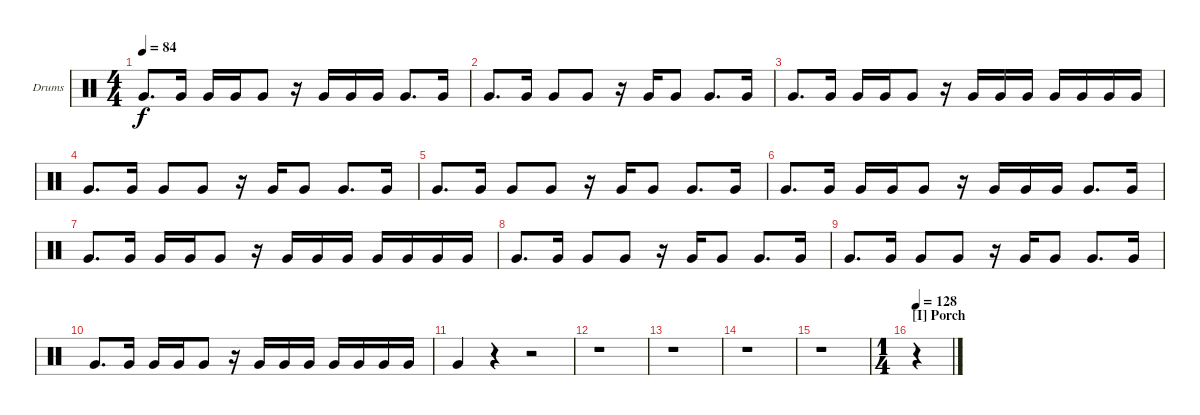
\defaultSystemsLayout 4
\bracketExtendMode nobrackets
\firstSystemTrackNameOrientation horizontal
\otherSystemsTrackNameOrientation horizontal
\track ("Dave Krusen" "Drums") {instrument percussion}
\staff {score}
\articulation defaults
\ts (4 4)
\tempo 84
\clef neutral
\ks c "Very Low Tom (hit)".8{d dy f} "Very Low Tom (hit)".16 "Very Low Tom (hit)".16 "Very Low Tom (hit)".16 "Very Low Tom (hit)".8
r.16 "Very Low Tom (hit)".16 "Very Low Tom (hit)".16 "Very Low Tom (hit)".16 "Very Low Tom (hit)".8{d} "Very Low Tom (hit)".16 |
"Very Low Tom (hit)".8{d} "Very Low Tom (hit)".16 "Very Low Tom (hit)".8 "Very Low Tom (hit)".8 r.16 "Very Low Tom (hit)".16 "Very Low Tom (hit)".8 "Very Low Tom (hit)".8{d} "Very Low Tom (hit)".16 |
"Very Low Tom (hit)".8{d} "Very Low Tom (hit)".16 "Very Low Tom (hit)".16 "Very Low Tom (hit)".16 "Very Low Tom (hit)".8 r.16 "Very Low Tom (hit)".16 "Very Low Tom (hit)".16 "Very Low Tom (hit)".16 "Very Low Tom (hit)".16 "Very Low Tom (hit)".16 "Very Low Tom (hit)".16 "Very Low Tom (hit)".16 |
"Very Low Tom (hit)".8{d} "Very Low Tom (hit)".16 "Very Low Tom (hit)".8 "Very Low Tom (hit)".8 r.16 "Very Low Tom (hit)".16 "Very Low Tom (hit)".8 "Very Low Tom (hit)".8{d} "Very Low Tom (hit)".16 |
"Very Low Tom (hit)".8{d} "Very Low Tom (hit)".16 "Very Low Tom (hit)".8 "Very Low Tom (hit)".8 r.16 "Very Low Tom (hit)".16 "Very Low Tom (hit)".8 "Very Low Tom (hit)".8{d} "Very Low Tom (hit)".16 |
"Very Low Tom (hit)".8{d} "Very Low Tom (hit)".16 "Very Low Tom (hit)".16 "Very Low Tom (hit)".16 "Very Low Tom (hit)".8 r.16 "Very Low Tom (hit)".16 "Very Low Tom (hit)".16 "Very Low Tom (hit)".16 "Very Low Tom (hit)".8{d} "Very Low Tom (hit)".16 |
"Very Low Tom (hit)".8{d} "Very Low Tom (hit)".16 "Very Low Tom (hit)".16 "Very Low Tom (hit)".16 "Very Low Tom (hit)".8 r.16 "Very Low Tom (hit)".16 "Very Low Tom (hit)".16 "Very Low Tom (hit)".16 "Very Low Tom (hit)".16 "Very Low Tom (hit)".16 "Very Low Tom (hit)".16 "Very Low Tom (hit)".16 |
"Very Low Tom (hit)".8{d} "Very Low Tom (hit)".16 "Very Low Tom (hit)".8 "Very Low Tom (hit)".8 r.16 "Very Low Tom (hit)".16 "Very Low Tom (hit)".8 "Very Low Tom (hit)".8{d} "Very Low Tom (hit)".16 |
"Very Low Tom (hit)".8{d} "Very Low Tom (hit)".16 "Very Low Tom (hit)".8 "Very Low Tom (hit)".8 r.16 "Very Low Tom (hit)".16 "Very Low Tom (hit)".8 "Very Low Tom (hit)".8{d} "Very Low Tom (hit)".16 |
"Very Low Tom (hit)".8{d} "Very Low Tom (hit)".16 "Very Low Tom (hit)".16 "Very Low Tom (hit)".16 "Very Low Tom (hit)".8 r.16 "Very Low Tom (hit)".16 "Very Low Tom (hit)".16 "Very Low Tom (hit)".16 "Very Low Tom (hit)".16 "Very Low Tom (hit)".16 "Very Low Tom (hit)".16 "Very Low Tom (hit)".16 |
"Very Low Tom (hit)".4 r.4 r.2 |
r.1 |
r.1 |
r.1 |
r.1 |
\ts (1 4)
\section ("I" "Porch")
\tempo 128
r.4
